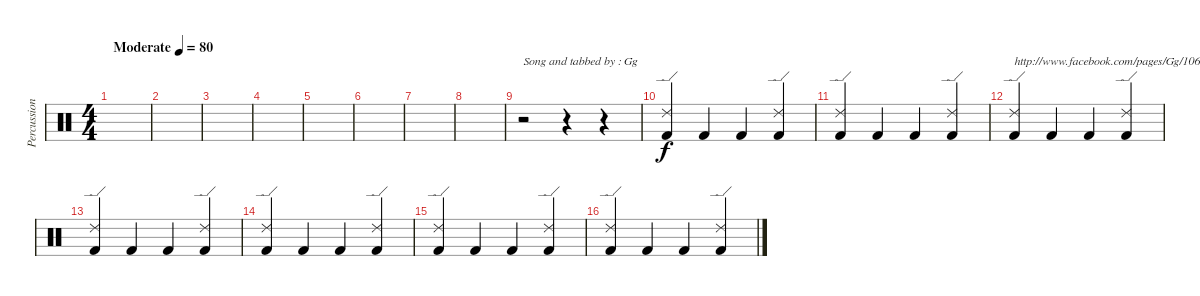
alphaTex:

\track ("Percussion" "Percussion") {instrument percussion}
\staff {score}
\articulation defaults
\ts (4 4)
\tempo (80 "Moderate")
\clef neutral
\ks c
|
|
|
|
|
|
|
|
r.2{txt "Song and tabbed by : Gg"} r.4 r.4 |
("Kick (hit) 2" "Ride (edge) 2").4 "Kick (hit) 2".4 "Kick (hit) 2".4 ("Ride (edge) 2" "Kick (hit) 2").4 |
("Kick (hit) 2" "Ride (edge) 2").4 "Kick (hit) 2".4 "Kick (hit) 2".4 ("Ride (edge) 2" "Kick (hit) 2").4 |
("Kick (hit) 2" "Ride (edge) 2").4{txt "http://www.facebook.com/pages/Gg/106385542746876"} "Kick (hit) 2".4 "Kick (hit) 2".4 ("Ride (edge) 2" "Kick (hit) 2").4 |
("Kick (hit) 2" "Ride (edge) 2").4 "Kick (hit) 2".4 "Kick (hit) 2".4 ("Ride (edge) 2" "Kick (hit) 2").4 |
("Kick (hit) 2" "Ride (edge) 2").4 "Kick (hit) 2".4 "Kick (hit) 2".4 ("Ride (edge) 2" "Kick (hit) 2").4 |
("Kick (hit) 2" "Ride (edge) 2").4 "Kick (hit) 2".4 "Kick (hit) 2".4 ("Ride (edge) 2" "Kick (hit) 2").4 |
("Kick (hit) 2" "Ride (edge) 2").4 "Kick (hit) 2".4 "Kick (hit) 2".4 ("Kick (hit) 2" "Ride (edge) 2").4
